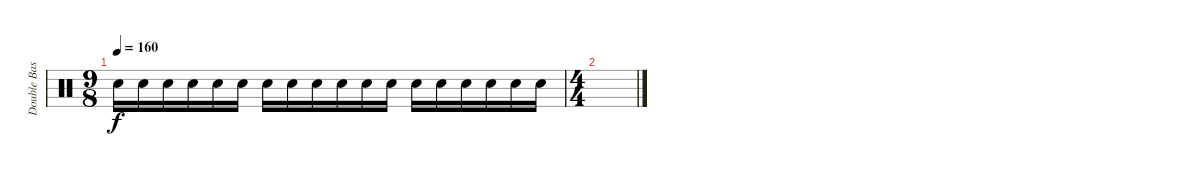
\track ("Double Bass" "Double Bas") {instrument percussion}
\staff {score}
\articulation defaults
\ts (9 8)
\tempo 160
\clef neutral
\ks c "Snare (hit) 2".16{dy f} "Snare (hit) 2".16 "Snare (hit) 2".16 "Snare (hit) 2".16 "Snare (hit) 2".16 "Snare (hit) 2".16 "Snare (hit) 2".16 "Snare (hit) 2".16 "Snare (hit) 2".16 "Snare (hit) 2".16 "Snare (hit) 2".16 "Snare (hit) 2".16 "Snare (hit) 2".16 "Snare (hit) 2".16 "Snare (hit) 2".16 "Snare (hit) 2".16 "Snare (hit) 2".16 "Snare (hit) 2".16
|
\ts (4 4)
